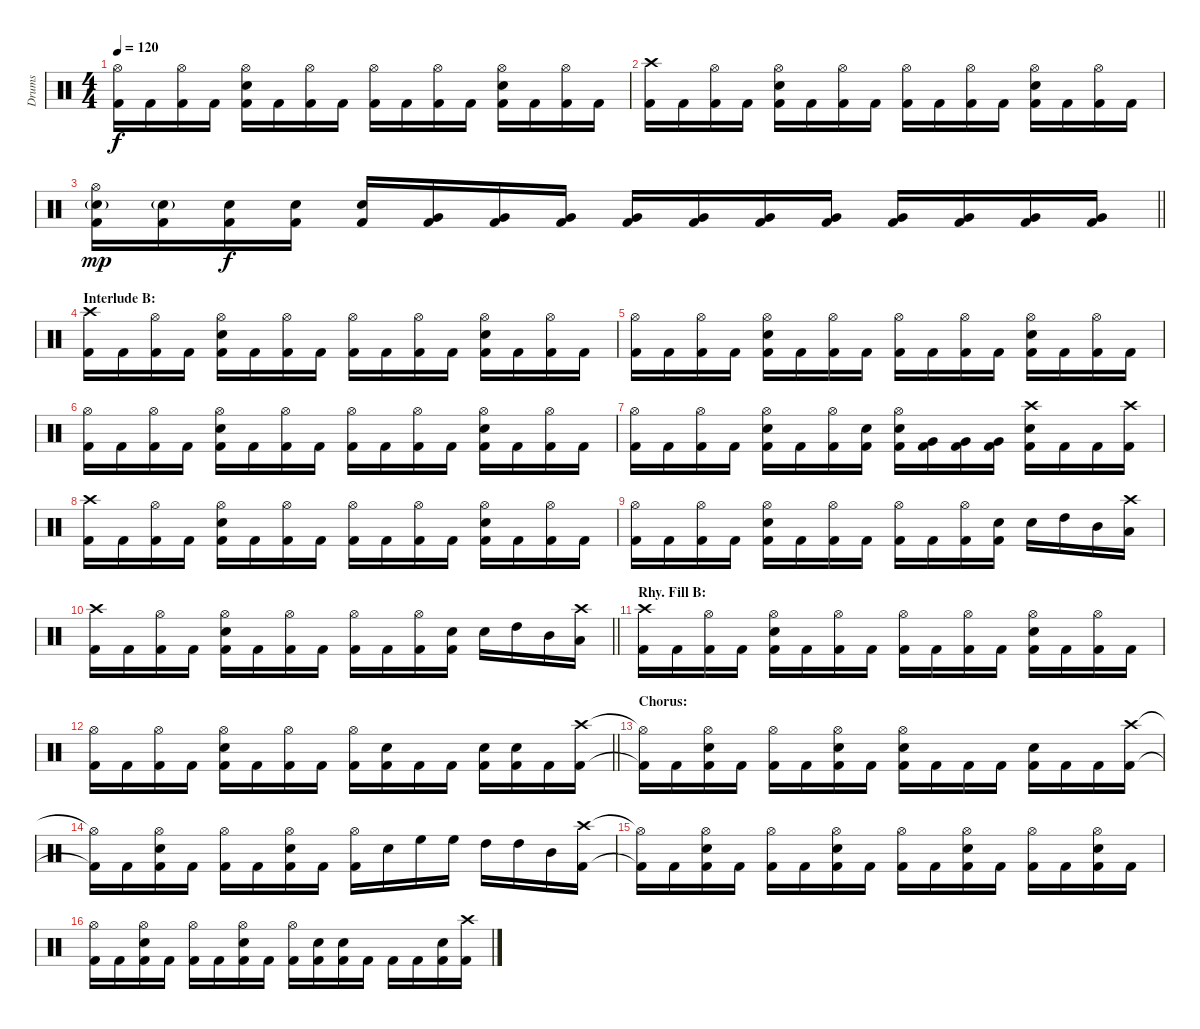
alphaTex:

\track ("Drums" "Drums") {instrument percussion}
\staff {score}
\articulation defaults
\ts (4 4)
\tempo 120
\clef neutral
\ks c
("Hi-Hat (open)" "Kick (hit) 2").16{dy f} "Kick (hit) 2".16 ("Hi-Hat (open)" "Kick (hit) 2").16 "Kick (hit) 2".16 ("Hi-Hat (open)" "Electric Snare (hit)" "Kick (hit) 2").16 "Kick (hit) 2".16 ("Hi-Hat (open)" "Kick (hit) 2").16 "Kick (hit) 2".16 ("Hi-Hat (open)" "Kick (hit) 2").16 "Kick (hit) 2".16 ("Hi-Hat (open)" "Kick (hit) 2").16 "Kick (hit) 2".16 ("Hi-Hat (open)" "Electric Snare (hit)" "Kick (hit) 2").16 "Kick (hit) 2".16 ("Hi-Hat (open)" "Kick (hit) 2").16 "Kick (hit) 2".16 |
("Crash high (hit)" "Kick (hit) 2").16 "Kick (hit) 2".16 ("Hi-Hat (open)" "Kick (hit) 2").16 "Kick (hit) 2".16 ("Hi-Hat (open)" "Electric Snare (hit)" "Kick (hit) 2").16 "Kick (hit) 2".16 ("Hi-Hat (open)" "Kick (hit) 2").16 "Kick (hit) 2".16 ("Hi-Hat (open)" "Kick (hit) 2").16 "Kick (hit) 2".16 ("Hi-Hat (open)" "Kick (hit) 2").16 "Kick (hit) 2".16 ("Hi-Hat (open)" "Electric Snare (hit)" "Kick (hit) 2").16 "Kick (hit) 2".16 ("Hi-Hat (open)" "Kick (hit) 2").16 "Kick (hit) 2".16 |
\barLineRight lightlight
("Hi-Hat (open)" "Electric Snare (hit)"{g} "Kick (hit) 2").16{dy mp} ("Electric Snare (hit)"{g} "Kick (hit) 2").16 ("Electric Snare (hit)" "Kick (hit) 2").16{dy f} ("Electric Snare (hit)" "Kick (hit) 2").16 ("Electric Snare (hit)" "Kick (hit) 2").16 ("Very Low Tom (hit)" "Kick (hit) 2").16 ("Very Low Tom (hit)" "Kick (hit) 2").16 ("Very Low Tom (hit)" "Kick (hit) 2").16 ("Very Low Tom (hit)" "Kick (hit) 2").16 ("Very Low Tom (hit)" "Kick (hit) 2").16 ("Very Low Tom (hit)" "Kick (hit) 2").16 ("Very Low Tom (hit)" "Kick (hit) 2").16 ("Very Low Tom (hit)" "Kick (hit) 2").16 ("Very Low Tom (hit)" "Kick (hit) 2").16 ("Very Low Tom (hit)" "Kick (hit) 2").16 ("Very Low Tom (hit)" "Kick (hit) 2").16 |
\section ("" "Interlude B:")
("Crash high (hit)" "Kick (hit) 2").16 "Kick (hit) 2".16 ("Hi-Hat (open)" "Kick (hit) 2").16 "Kick (hit) 2".16 ("Hi-Hat (open)" "Electric Snare (hit)" "Kick (hit) 2").16 "Kick (hit) 2".16 ("Hi-Hat (open)" "Kick (hit) 2").16 "Kick (hit) 2".16 ("Hi-Hat (open)" "Kick (hit) 2").16 "Kick (hit) 2".16 ("Hi-Hat (open)" "Kick (hit) 2").16 "Kick (hit) 2".16 ("Hi-Hat (open)" "Electric Snare (hit)" "Kick (hit) 2").16 "Kick (hit) 2".16 ("Hi-Hat (open)" "Kick (hit) 2").16 "Kick (hit) 2".16 |
("Hi-Hat (open)" "Kick (hit) 2").16 "Kick (hit) 2".16 ("Hi-Hat (open)" "Kick (hit) 2").16 "Kick (hit) 2".16 ("Hi-Hat (open)" "Electric Snare (hit)" "Kick (hit) 2").16 "Kick (hit) 2".16 ("Hi-Hat (open)" "Kick (hit) 2").16 "Kick (hit) 2".16 ("Hi-Hat (open)" "Kick (hit) 2").16 "Kick (hit) 2".16 ("Hi-Hat (open)" "Kick (hit) 2").16 "Kick (hit) 2".16 ("Hi-Hat (open)" "Electric Snare (hit)" "Kick (hit) 2").16 "Kick (hit) 2".16 ("Hi-Hat (open)" "Kick (hit) 2").16 "Kick (hit) 2".16 |
("Hi-Hat (open)" "Kick (hit) 2").16 "Kick (hit) 2".16 ("Hi-Hat (open)" "Kick (hit) 2").16 "Kick (hit) 2".16 ("Hi-Hat (open)" "Electric Snare (hit)" "Kick (hit) 2").16 "Kick (hit) 2".16 ("Hi-Hat (open)" "Kick (hit) 2").16 "Kick (hit) 2".16 ("Hi-Hat (open)" "Kick (hit) 2").16 "Kick (hit) 2".16 ("Hi-Hat (open)" "Kick (hit) 2").16 "Kick (hit) 2".16 ("Hi-Hat (open)" "Electric Snare (hit)" "Kick (hit) 2").16 "Kick (hit) 2".16 ("Hi-Hat (open)" "Kick (hit) 2").16 "Kick (hit) 2".16 |
("Hi-Hat (open)" "Kick (hit) 2").16 "Kick (hit) 2".16 ("Hi-Hat (open)" "Kick (hit) 2").16 "Kick (hit) 2".16 ("Hi-Hat (open)" "Electric Snare (hit)" "Kick (hit) 2").16 "Kick (hit) 2".16 ("Hi-Hat (open)" "Kick (hit) 2").16 ("Electric Snare (hit)" "Kick (hit) 2").16 ("Hi-Hat (open)" "Electric Snare (hit)" "Kick (hit) 2").16 ("Very Low Tom (hit)" "Kick (hit) 2").16 ("Very Low Tom (hit)" "Kick (hit) 2").16 ("Very Low Tom (hit)" "Kick (hit) 2").16 ("Crash high (hit)" "Electric Snare (hit)" "Kick (hit) 2").16 "Kick (hit) 2".16 "Kick (hit) 2".16 ("Crash high (hit)" "Kick (hit) 2").16 |
("Crash high (hit)" "Kick (hit) 2").16 "Kick (hit) 2".16 ("Hi-Hat (open)" "Kick (hit) 2").16 "Kick (hit) 2".16 ("Hi-Hat (open)" "Electric Snare (hit)" "Kick (hit) 2").16 "Kick (hit) 2".16 ("Hi-Hat (open)" "Kick (hit) 2").16 "Kick (hit) 2".16 ("Hi-Hat (open)" "Kick (hit) 2").16 "Kick (hit) 2".16 ("Hi-Hat (open)" "Kick (hit) 2").16 "Kick (hit) 2".16 ("Hi-Hat (open)" "Electric Snare (hit)" "Kick (hit) 2").16 "Kick (hit) 2".16 ("Hi-Hat (open)" "Kick (hit) 2").16 "Kick (hit) 2".16 |
("Hi-Hat (open)" "Kick (hit) 2").16 "Kick (hit) 2".16 ("Hi-Hat (open)" "Kick (hit) 2").16 "Kick (hit) 2".16 ("Hi-Hat (open)" "Electric Snare (hit)" "Kick (hit) 2").16 "Kick (hit) 2".16 ("Hi-Hat (open)" "Kick (hit) 2").16 "Kick (hit) 2".16 ("Hi-Hat (open)" "Kick (hit) 2").16 "Kick (hit) 2".16 ("Hi-Hat (open)" "Kick (hit) 2").16 ("Electric Snare (hit)" "Kick (hit) 2").16 "Electric Snare (hit)".16 "High Tom (hit)".16 "Mid Tom (hit)".16 ("Crash high (hit)" "Low Tom (hit)").16 |
\barLineRight lightlight
("Crash high (hit)" "Kick (hit) 2").16 "Kick (hit) 2".16 ("Hi-Hat (open)" "Kick (hit) 2").16 "Kick (hit) 2".16 ("Hi-Hat (open)" "Electric Snare (hit)" "Kick (hit) 2").16 "Kick (hit) 2".16 ("Hi-Hat (open)" "Kick (hit) 2").16 "Kick (hit) 2".16 ("Hi-Hat (open)" "Kick (hit) 2").16 "Kick (hit) 2".16 ("Hi-Hat (open)" "Kick (hit) 2").16 ("Electric Snare (hit)" "Kick (hit) 2").16 "Electric Snare (hit)".16 "High Tom (hit)".16 "Mid Tom (hit)".16 ("Crash high (hit)" "Low Tom (hit)").16 |
\section ("" "Rhy. Fill B:")
("Crash high (hit)" "Kick (hit) 2").16 "Kick (hit) 2".16 ("Hi-Hat (open)" "Kick (hit) 2").16 "Kick (hit) 2".16 ("Hi-Hat (open)" "Electric Snare (hit)" "Kick (hit) 2").16 "Kick (hit) 2".16 ("Hi-Hat (open)" "Kick (hit) 2").16 "Kick (hit) 2".16 ("Hi-Hat (open)" "Kick (hit) 2").16 "Kick (hit) 2".16 ("Hi-Hat (open)" "Kick (hit) 2").16 "Kick (hit) 2".16 ("Hi-Hat (open)" "Electric Snare (hit)" "Kick (hit) 2").16 "Kick (hit) 2".16 ("Hi-Hat (open)" "Kick (hit) 2").16 "Kick (hit) 2".16 |
\barLineRight lightlight
("Hi-Hat (open)" "Kick (hit) 2").16 "Kick (hit) 2".16 ("Hi-Hat (open)" "Kick (hit) 2").16 "Kick (hit) 2".16 ("Hi-Hat (open)" "Electric Snare (hit)" "Kick (hit) 2").16 "Kick (hit) 2".16 ("Hi-Hat (open)" "Kick (hit) 2").16 "Kick (hit) 2".16 ("Hi-Hat (open)" "Kick (hit) 2").16 ("Electric Snare (hit)" "Kick (hit) 2").16 "Kick (hit) 2".16 "Kick (hit) 2".16 ("Electric Snare (hit)" "Kick (hit) 2").16 ("Electric Snare (hit)" "Kick (hit) 2").16 "Kick (hit) 2".16 ("Crash high (hit)" "Kick (hit) 2").16 |
\section ("" "Chorus:")
("Hi-Hat (open)"{t} "Kick (hit) 2"{t}).16 "Kick (hit) 2".16 ("Hi-Hat (open)" "Electric Snare (hit)" "Kick (hit) 2").16 "Kick (hit) 2".16 ("Hi-Hat (open)" "Kick (hit) 2").16 "Kick (hit) 2".16 ("Hi-Hat (open)" "Electric Snare (hit)" "Kick (hit) 2").16 "Kick (hit) 2".16 ("Hi-Hat (open)" "Electric Snare (hit)" "Kick (hit) 2").16 "Kick (hit) 2".16 "Kick (hit) 2".16 "Kick (hit) 2".16 ("Electric Snare (hit)" "Kick (hit) 2").16 "Kick (hit) 2".16 "Kick (hit) 2".16 ("Crash high (hit)" "Kick (hit) 2").16 |
("Hi-Hat (open)"{t} "Kick (hit) 2"{t}).16 "Kick (hit) 2".16 ("Hi-Hat (open)" "Electric Snare (hit)" "Kick (hit) 2").16 "Kick (hit) 2".16 ("Hi-Hat (open)" "Kick (hit) 2").16 "Kick (hit) 2".16 ("Hi-Hat (open)" "Electric Snare (hit)" "Kick (hit) 2").16 "Kick (hit) 2".16 ("Hi-Hat (open)" "Kick (hit) 2").16 "Electric Snare (hit)".16 "High Floor Tom (hit)".16 "High Floor Tom (hit)".16 "High Tom (hit)".16 "High Tom (hit)".16 "Mid Tom (hit)".16 ("Crash high (hit)" "Kick (hit) 2").16 |
("Hi-Hat (open)"{t} "Kick (hit) 2"{t}).16 "Kick (hit) 2".16 ("Hi-Hat (open)" "Electric Snare (hit)" "Kick (hit) 2").16 "Kick (hit) 2".16 ("Hi-Hat (open)" "Kick (hit) 2").16 "Kick (hit) 2".16 ("Hi-Hat (open)" "Electric Snare (hit)" "Kick (hit) 2").16 "Kick (hit) 2".16 ("Hi-Hat (open)" "Kick (hit) 2").16 "Kick (hit) 2".16 ("Hi-Hat (open)" "Electric Snare (hit)" "Kick (hit) 2").16 "Kick (hit) 2".16 ("Hi-Hat (open)" "Kick (hit) 2").16 "Kick (hit) 2".16 ("Hi-Hat (open)" "Electric Snare (hit)" "Kick (hit) 2").16 "Kick (hit) 2".16 |
("Hi-Hat (open)" "Kick (hit) 2").16 "Kick (hit) 2".16 ("Hi-Hat (open)" "Electric Snare (hit)" "Kick (hit) 2").16 "Kick (hit) 2".16 ("Hi-Hat (open)" "Kick (hit) 2").16 "Kick (hit) 2".16 ("Hi-Hat (open)" "Electric Snare (hit)" "Kick (hit) 2").16 "Kick (hit) 2".16 ("Hi-Hat (open)" "Kick (hit) 2").16 ("Electric Snare (hit)" "Kick (hit) 2").16 ("Electric Snare (hit)" "Kick (hit) 2").16 "Kick (hit) 2".16 "Kick (hit) 2".16 "Kick (hit) 2".16 ("Electric Snare (hit)" "Kick (hit) 2").16 ("Crash high (hit)" "Kick (hit) 2").16
